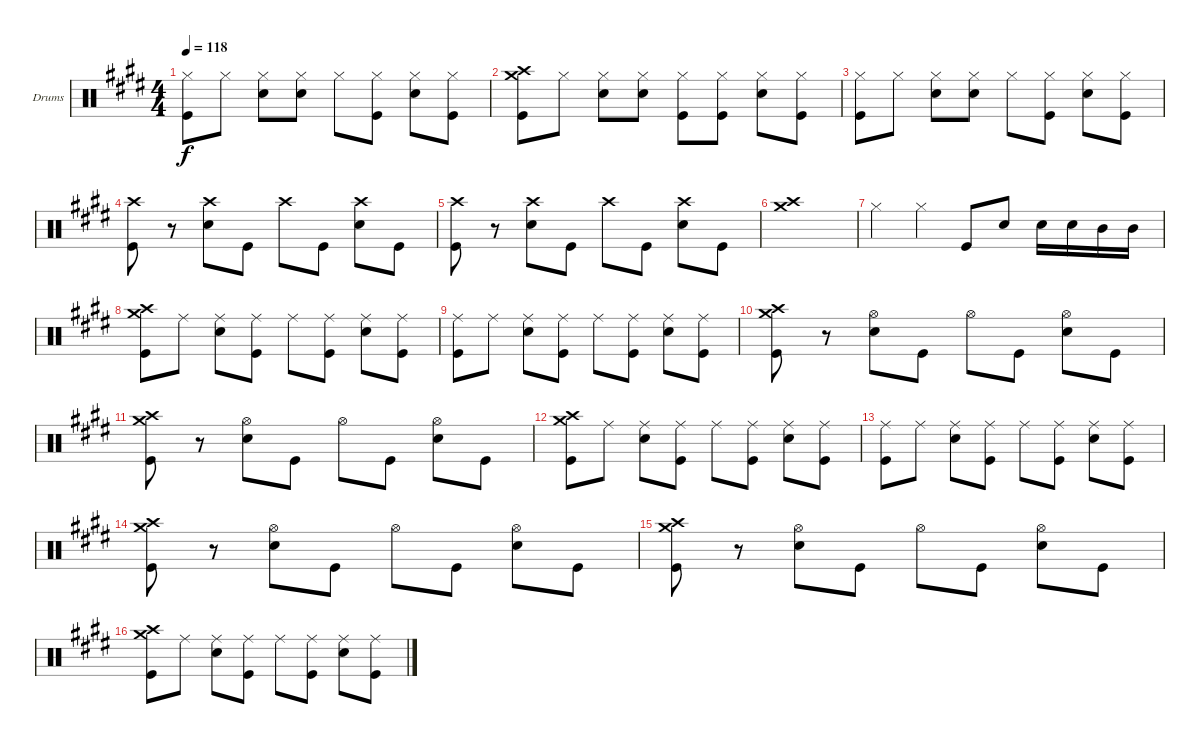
\defaultSystemsLayout 4
\bracketExtendMode groupsimilarinstruments
\firstSystemTrackNameOrientation horizontal
\otherSystemsTrackNameOrientation horizontal
\track ("Drumkit" "Drums") {instrument percussion}
\staff {score}
\articulation defaults
\ts (4 4)
\tempo 118
\clef neutral
\ks e
("Hi-Hat (closed)" "Kick (hit)").8{dy f} "Hi-Hat (closed)".8 ("Hi-Hat (closed)" "Snare (hit) 2").8 ("Hi-Hat (closed)" "Snare (hit) 2").8 "Hi-Hat (closed)".8 ("Hi-Hat (closed)" "Kick (hit)").8 ("Hi-Hat (closed)" "Snare (hit) 2").8 ("Hi-Hat (closed)" "Kick (hit)").8 |
("Crash medium (hit)" "Crash high (hit)" "Kick (hit)").8 "Hi-Hat (closed)".8 ("Hi-Hat (closed)" "Snare (hit) 2").8 ("Hi-Hat (closed)" "Snare (hit) 2").8 ("Hi-Hat (closed)" "Kick (hit)").8 ("Hi-Hat (closed)" "Kick (hit)").8 ("Hi-Hat (closed)" "Snare (hit) 2").8 ("Hi-Hat (closed)" "Kick (hit)").8 |
("Hi-Hat (closed)" "Kick (hit)").8 "Hi-Hat (closed)".8 ("Hi-Hat (closed)" "Snare (hit) 2").8 ("Hi-Hat (closed)" "Snare (hit) 2").8 "Hi-Hat (closed)".8 ("Hi-Hat (closed)" "Kick (hit)").8 ("Hi-Hat (closed)" "Snare (hit) 2").8 ("Hi-Hat (closed)" "Kick (hit)").8 |
("Crash high (hit)" "Kick (hit)").8 r.8 ("Crash high (hit)" "Snare (hit) 2").8 "Kick (hit)".8 "Crash high (hit)".8 "Kick (hit)".8 ("Crash high (hit)" "Snare (hit) 2").8 "Kick (hit)".8 |
("Crash high (hit)" "Kick (hit)").8 r.8 ("Crash high (hit)" "Snare (hit) 2").8 "Kick (hit)".8 "Crash high (hit)".8 "Kick (hit)".8 ("Crash high (hit)" "Snare (hit) 2").8 "Kick (hit)".8 |
("Crash medium (hit)" "Crash high (hit)").1 |
"Hi-Hat (closed)".4 "Hi-Hat (closed)".4 "Kick (hit)".8 "Snare (hit) 2".8 "Snare (hit) 2".16 "Snare (hit) 2".16 "Mid Tom (hit)".16 "Mid Tom (hit)".16 |
("Crash medium (hit)" "Crash high (hit)" "Kick (hit)").8 "Ride (middle)".8 ("Ride (middle)" "Snare (hit) 2").8 ("Ride (middle)" "Kick (hit)").8 "Ride (middle)".8 ("Ride (middle)" "Kick (hit)").8 ("Ride (middle)" "Snare (hit) 2").8 ("Ride (middle)" "Kick (hit)").8 |
("Ride (middle)" "Kick (hit)").8 "Ride (middle)".8 ("Ride (middle)" "Snare (hit) 2").8 ("Ride (middle)" "Kick (hit)").8 "Ride (middle)".8 ("Ride (middle)" "Kick (hit)").8 ("Ride (middle)" "Snare (hit) 2").8 ("Ride (middle)" "Kick (hit)").8 |
("Crash medium (hit)" "Crash high (hit)" "Kick (hit)").8 r.8 ("Hi-Hat (open)" "Snare (hit) 2").8 "Kick (hit)".8 "Hi-Hat (open)".8 "Kick (hit)".8 ("Hi-Hat (open)" "Snare (hit) 2").8 "Kick (hit)".8 |
("Crash medium (hit)" "Crash high (hit)" "Kick (hit)").8 r.8 ("Hi-Hat (open)" "Snare (hit) 2").8 "Kick (hit)".8 "Hi-Hat (open)".8 "Kick (hit)".8 ("Hi-Hat (open)" "Snare (hit) 2").8 "Kick (hit)".8 |
("Crash medium (hit)" "Crash high (hit)" "Kick (hit)").8 "Ride (middle)".8 ("Ride (middle)" "Snare (hit) 2").8 ("Ride (middle)" "Kick (hit)").8 "Ride (middle)".8 ("Ride (middle)" "Kick (hit)").8 ("Ride (middle)" "Snare (hit) 2").8 ("Ride (middle)" "Kick (hit)").8 |
("Ride (middle)" "Kick (hit)").8 "Ride (middle)".8 ("Ride (middle)" "Snare (hit) 2").8 ("Ride (middle)" "Kick (hit)").8 "Ride (middle)".8 ("Ride (middle)" "Kick (hit)").8 ("Ride (middle)" "Snare (hit) 2").8 ("Ride (middle)" "Kick (hit)").8 |
("Crash medium (hit)" "Crash high (hit)" "Kick (hit)").8 r.8 ("Hi-Hat (open)" "Snare (hit) 2").8 "Kick (hit)".8 "Hi-Hat (open)".8 "Kick (hit)".8 ("Hi-Hat (open)" "Snare (hit) 2").8 "Kick (hit)".8 |
("Crash medium (hit)" "Crash high (hit)" "Kick (hit)").8 r.8 ("Hi-Hat (open)" "Snare (hit) 2").8 "Kick (hit)".8 "Hi-Hat (open)".8 "Kick (hit)".8 ("Hi-Hat (open)" "Snare (hit) 2").8 "Kick (hit)".8 |
("Crash medium (hit)" "Crash high (hit)" "Kick (hit)").8 "Ride (middle)".8 ("Ride (middle)" "Snare (hit) 2").8 ("Ride (middle)" "Kick (hit)").8 "Ride (middle)".8 ("Ride (middle)" "Kick (hit)").8 ("Ride (middle)" "Snare (hit) 2").8 ("Ride (middle)" "Kick (hit)").8
